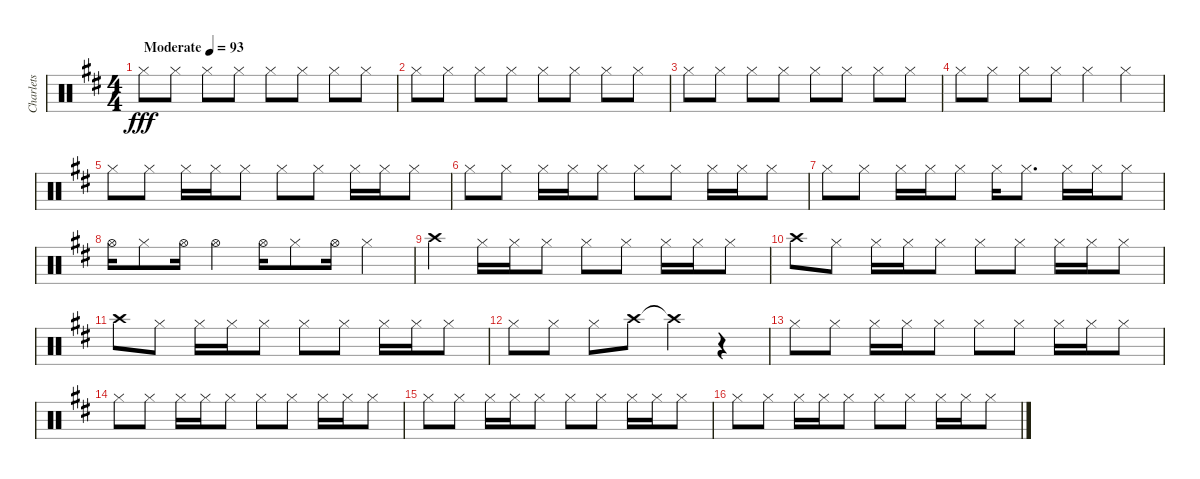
\track ("Charlets" "Charlets") {instrument percussion}
\staff {score}
\articulation defaults
\ts (4 4)
\tempo (93 "Moderate")
\clef neutral
\ks d "Hi-Hat (closed)".8{dy fff} "Hi-Hat (closed)".8 "Hi-Hat (closed)".8 "Hi-Hat (closed)".8 "Hi-Hat (closed)".8 "Hi-Hat (closed)".8 "Hi-Hat (closed)".8 "Hi-Hat (closed)".8
|
"Hi-Hat (closed)".8 "Hi-Hat (closed)".8 "Hi-Hat (closed)".8 "Hi-Hat (closed)".8 "Hi-Hat (closed)".8 "Hi-Hat (closed)".8 "Hi-Hat (closed)".8 "Hi-Hat (closed)".8 |
"Hi-Hat (closed)".8 "Hi-Hat (closed)".8 "Hi-Hat (closed)".8 "Hi-Hat (closed)".8 "Hi-Hat (closed)".8 "Hi-Hat (closed)".8 "Hi-Hat (closed)".8 "Hi-Hat (closed)".8 |
"Hi-Hat (closed)".8 "Hi-Hat (closed)".8 "Hi-Hat (closed)".8 "Hi-Hat (closed)".8 "Hi-Hat (closed)".4 "Hi-Hat (closed)".4 |
"Hi-Hat (closed)".8 "Hi-Hat (closed)".8 "Hi-Hat (closed)".16 "Hi-Hat (closed)".16 "Hi-Hat (closed)".8 "Hi-Hat (closed)".8 "Hi-Hat (closed)".8 "Hi-Hat (closed)".16 "Hi-Hat (closed)".16 "Hi-Hat (closed)".8 |
"Hi-Hat (closed)".8 "Hi-Hat (closed)".8 "Hi-Hat (closed)".16 "Hi-Hat (closed)".16 "Hi-Hat (closed)".8 "Hi-Hat (closed)".8 "Hi-Hat (closed)".8 "Hi-Hat (closed)".16 "Hi-Hat (closed)".16 "Hi-Hat (closed)".8 |
"Hi-Hat (closed)".8 "Hi-Hat (closed)".8 "Hi-Hat (closed)".16 "Hi-Hat (closed)".16 "Hi-Hat (closed)".8 "Hi-Hat (closed)".16 "Hi-Hat (closed)".8{d} "Hi-Hat (closed)".16 "Hi-Hat (closed)".16 "Hi-Hat (closed)".8 |
"Hi-Hat (open)".16 "Hi-Hat (closed)".8 "Hi-Hat (open)".16 "Hi-Hat (open)".4 "Hi-Hat (open)".16 "Hi-Hat (closed)".8 "Hi-Hat (open)".16 "Hi-Hat (closed)".4 |
"Crash high (hit)".4 "Hi-Hat (closed)".16 "Hi-Hat (closed)".16 "Hi-Hat (closed)".8 "Hi-Hat (closed)".8 "Hi-Hat (closed)".8 "Hi-Hat (closed)".16 "Hi-Hat (closed)".16 "Hi-Hat (closed)".8 |
"Crash high (hit)".8 "Hi-Hat (closed)".8 "Hi-Hat (closed)".16 "Hi-Hat (closed)".16 "Hi-Hat (closed)".8 "Hi-Hat (closed)".8 "Hi-Hat (closed)".8 "Hi-Hat (closed)".16 "Hi-Hat (closed)".16 "Hi-Hat (closed)".8 |
"Crash high (hit)".8 "Hi-Hat (closed)".8 "Hi-Hat (closed)".16 "Hi-Hat (closed)".16 "Hi-Hat (closed)".8 "Hi-Hat (closed)".8 "Hi-Hat (closed)".8 "Hi-Hat (closed)".16 "Hi-Hat (closed)".16 "Hi-Hat (closed)".8 |
"Hi-Hat (closed)".8 "Hi-Hat (closed)".8 "Hi-Hat (closed)".8 "Crash high (hit)".8 "Crash high (hit)"{t}.4 r.4 |
"Hi-Hat (closed)".8 "Hi-Hat (closed)".8 "Hi-Hat (closed)".16 "Hi-Hat (closed)".16 "Hi-Hat (closed)".8 "Hi-Hat (closed)".8 "Hi-Hat (closed)".8 "Hi-Hat (closed)".16 "Hi-Hat (closed)".16 "Hi-Hat (closed)".8 |
"Hi-Hat (closed)".8 "Hi-Hat (closed)".8 "Hi-Hat (closed)".16 "Hi-Hat (closed)".16 "Hi-Hat (closed)".8 "Hi-Hat (closed)".8 "Hi-Hat (closed)".8 "Hi-Hat (closed)".16 "Hi-Hat (closed)".16 "Hi-Hat (closed)".8 |
"Hi-Hat (closed)".8 "Hi-Hat (closed)".8 "Hi-Hat (closed)".16 "Hi-Hat (closed)".16 "Hi-Hat (closed)".8 "Hi-Hat (closed)".8 "Hi-Hat (closed)".8 "Hi-Hat (closed)".16 "Hi-Hat (closed)".16 "Hi-Hat (closed)".8 |
"Hi-Hat (closed)".8 "Hi-Hat (closed)".8 "Hi-Hat (closed)".16 "Hi-Hat (closed)".16 "Hi-Hat (closed)".8 "Hi-Hat (closed)".8 "Hi-Hat (closed)".8 "Hi-Hat (closed)".16 "Hi-Hat (closed)".16 "Hi-Hat (closed)".8
